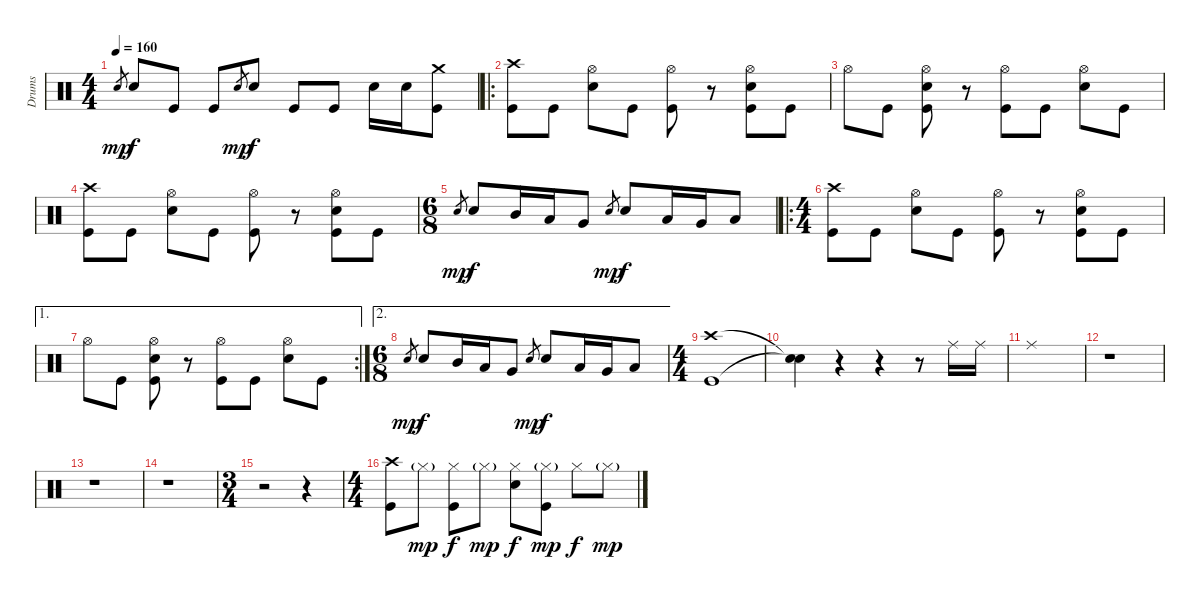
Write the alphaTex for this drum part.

\track ("Drums" "Drums") {instrument percussion}
\staff {score}
\articulation defaults
\ts (4 4)
\tempo 160
\clef neutral
\ks c "Electric Snare (hit)".8{gr dy mp} "Electric Snare (hit)".8{dy f} "Kick (hit)".8 "Kick (hit)".8 "Electric Snare (hit)".8{gr dy mp} "Electric Snare (hit)".8{dy f} "Kick (hit)".8 "Kick (hit)".8 "Electric Snare (hit)".16 "Electric Snare (hit)".16
("Crash medium (hit)" "Kick (hit)").8 |
\ro
("Crash high (hit)" "Kick (hit)").8 "Kick (hit)".8 ("Hi-Hat (open)" "Electric Snare (hit)").8 "Kick (hit)".8 ("Hi-Hat (open)" "Kick (hit)").8 r.8 ("Hi-Hat (open)" "Electric Snare (hit)" "Kick (hit)").8 "Kick (hit)".8 |
"Hi-Hat (open)".8 "Kick (hit)".8 ("Hi-Hat (open)" "Electric Snare (hit)" "Kick (hit)").8 r.8 ("Hi-Hat (open)" "Kick (hit)").8 "Kick (hit)".8 ("Hi-Hat (open)" "Electric Snare (hit)").8 "Kick (hit)".8 |
("Crash high (hit)" "Kick (hit)").8 "Kick (hit)".8 ("Hi-Hat (open)" "Electric Snare (hit)").8 "Kick (hit)".8 ("Hi-Hat (open)" "Kick (hit)").8 r.8 ("Hi-Hat (open)" "Electric Snare (hit)" "Kick (hit)").8 "Kick (hit)".8 |
\ts (6 8)
"Electric Snare (hit)".8{gr dy mp} "Electric Snare (hit)".8{dy f} "Mid Tom (hit)".16 "Low Tom (hit)".16 "Very Low Tom (hit)".8 "Electric Snare (hit)".8{gr dy mp} "Electric Snare (hit)".8{dy f} "Low Tom (hit)".16 "Very Low Tom (hit)".16 "Low Floor Tom (hit)".8 |
\ro
\ts (4 4)
("Crash high (hit)" "Kick (hit)").8 "Kick (hit)".8 ("Hi-Hat (open)" "Electric Snare (hit)").8 "Kick (hit)".8 ("Hi-Hat (open)" "Kick (hit)").8 r.8 ("Hi-Hat (open)" "Electric Snare (hit)" "Kick (hit)").8 "Kick (hit)".8 |
\ae 1
\rc 2 "Hi-Hat (open)".8 "Kick (hit)".8
("Hi-Hat (open)" "Electric Snare (hit)" "Kick (hit)").8 r.8 ("Hi-Hat (open)" "Kick (hit)").8 "Kick (hit)".8 ("Hi-Hat (open)" "Electric Snare (hit)").8 "Kick (hit)".8 |
\ae 2
\ts (6 8)
"Electric Snare (hit)".8{gr dy mp} "Electric Snare (hit)".8{dy f} "Mid Tom (hit)".16 "Low Tom (hit)".16 "Very Low Tom (hit)".8 "Electric Snare (hit)".8{gr dy mp} "Electric Snare (hit)".8{dy f} "Low Tom (hit)".16 "Very Low Tom (hit)".16 "Low Floor Tom (hit)".8 |
\ts (4 4)
("Crash high (hit)" "Kick (hit)").1 |
("Snare (hit)"{t} "Snare (hit)"{t}).4 r.4 r.4 r.8 "Ride (middle)".16 "Ride (middle)".16 |
"Ride (middle)".1 |
r.1 |
r.1 |
r.1 |
\ts (3 4)
r.2 r.4 |
\ts (4 4)
("Crash high (hit)" "Kick (hit)").8 "Hi-Hat (closed)"{g}.8{dy mp} ("Hi-Hat (closed)" "Kick (hit)").8{dy f} "Hi-Hat (closed)"{g}.8{dy mp} ("Hi-Hat (closed)" "Electric Snare (hit)").8{dy f} ("Hi-Hat (closed)"{g} "Kick (hit)").8{dy mp} "Hi-Hat (closed)".8{dy f} "Hi-Hat (closed)"{g}.8{dy mp}
